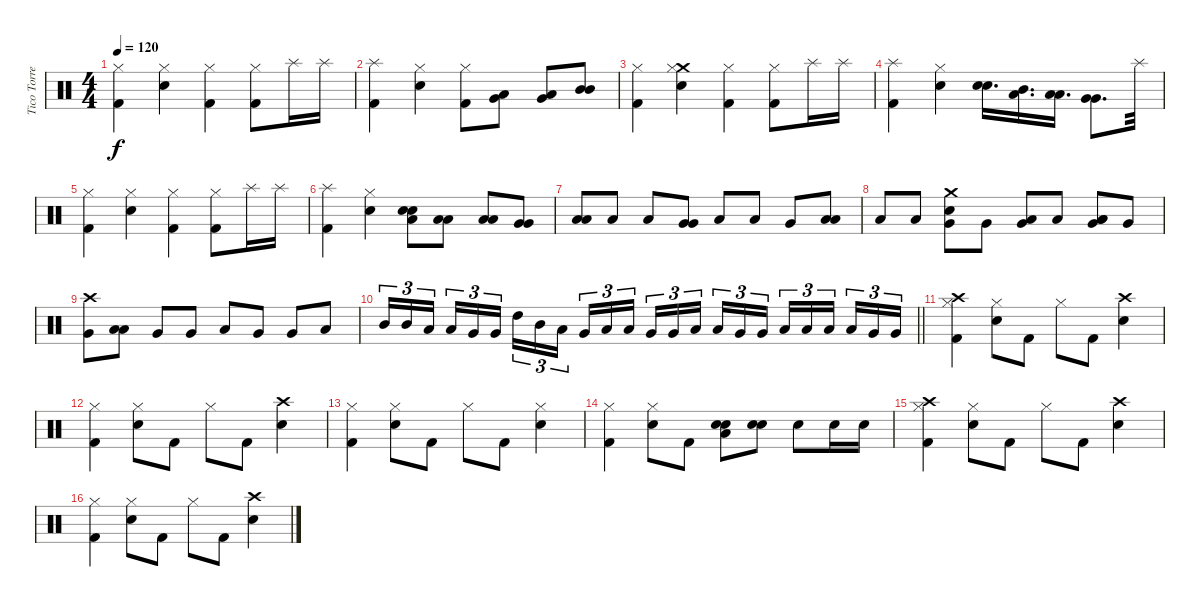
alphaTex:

\track ("Tico Torres (Drums)" "Tico Torre") {instrument percussion}
\staff {score}
\articulation defaults
\ts (4 4)
\tempo 120
\clef neutral
\ks c
("Hi-Hat (closed)" "Kick (hit) 2").4{dy f} ("Hi-Hat (closed)" "Electric Snare (hit)").4 ("Hi-Hat (closed)" "Kick (hit) 2").4 ("Hi-Hat (closed)" "Kick (hit) 2").8 "Splash (hit)".16 "Splash (hit)".16 |
("Splash (hit)" "Kick (hit) 2").4 ("Hi-Hat (closed)" "Electric Snare (hit)").4 ("Hi-Hat (closed)" "Kick (hit) 2").8 ("Low Tom (hit)" "Very Low Tom (hit)").8{bd 120} ("Low Tom (hit)" "Very Low Tom (hit)").8{bd 120} ("Mid Tom (hit)" "Mid Tom (hit)").8{bd 120} |
("Hi-Hat (closed)" "Kick (hit) 2").4 ("Crash medium (hit)" "Hi-Hat (closed)" "Electric Snare (hit)").4 ("Hi-Hat (closed)" "Kick (hit) 2").4 ("Hi-Hat (closed)" "Kick (hit) 2").8 "Splash (hit)".16 "Splash (hit)".16 |
("Splash (hit)" "Kick (hit) 2").4 ("Hi-Hat (closed)" "Electric Snare (hit)").4 ("Electric Snare (hit)" "Electric Snare (hit)").16{d bd 120} ("Low Tom (hit)" "Mid Tom (hit)").16{d bd 120} ("Low Tom (hit)" "Low Floor Tom (hit)").16{d bd 120} ("Very Low Tom (hit)" "Very Low Tom (hit)").8{d bd 120} "Splash (hit)".32 |
("Hi-Hat (closed)" "Kick (hit) 2").4 ("Hi-Hat (closed)" "Electric Snare (hit)").4 ("Hi-Hat (closed)" "Kick (hit) 2").4 ("Hi-Hat (closed)" "Kick (hit) 2").8 "Splash (hit)".16 "Splash (hit)".16 |
("Splash (hit)" "Kick (hit) 2").4 ("Hi-Hat (closed)" "Electric Snare (hit)").4 ("Low Floor Tom (hit)" "Electric Snare (hit)" "Electric Snare (hit)").8{bd 120} ("Low Tom (hit)" "Low Tom (hit)").8{bd 120} ("Low Tom (hit)" "Low Tom (hit)").8{bd 120} ("Very Low Tom (hit)" "Very Low Tom (hit)").8{bd 120} |
("Low Tom (hit)" "Low Tom (hit)").8{bd 120} "Low Tom (hit)".8 "Low Tom (hit)".8 ("Very Low Tom (hit)" "Very Low Tom (hit)").8{bd 120} "Low Tom (hit)".8 "Low Tom (hit)".8 "Very Low Tom (hit)".8 ("Low Tom (hit)" "Low Tom (hit)").8{bd 120} |
"Low Tom (hit)".8 "Low Tom (hit)".8 ("Crash medium (hit)" "Very Low Tom (hit)" "Electric Snare (hit)").8{bd 120} "Very Low Tom (hit)".8 ("Low Tom (hit)" "Very Low Tom (hit)").8{bd 120} "Low Tom (hit)".8 ("Low Floor Tom (hit)" "Very Low Tom (hit)" "Low Tom (hit)").8{bd 120} "Very Low Tom (hit)".8 |
("Crash high (hit)" "Very Low Tom (hit)").8 ("Low Tom (hit)" "Low Tom (hit)").8{bd 120} "Very Low Tom (hit)".8 "Very Low Tom (hit)".8 "Low Tom (hit)".8 "Very Low Tom (hit)".8 "Very Low Tom (hit)".8 "Low Tom (hit)".8 |
\barLineRight lightlight "Mid Tom (hit)".16{tu (3 2)} "Mid Tom (hit)".16{tu (3 2)} "Low Tom (hit)".16{tu (3 2) beam splitsecondary} "Low Tom (hit)".16{tu (3 2)} "Very Low Tom (hit)".16{tu (3 2)} "Very Low Tom (hit)".16{tu (3 2)} "High Tom (hit)".16{tu (3 2)} "Mid Tom (hit)".16{tu (3 2)} "Low Tom (hit)".16{tu (3 2) beam splitsecondary} "Very Low Tom (hit)".16{tu (3 2)} "Low Tom (hit)".16{tu (3 2)} "Low Tom (hit)".16{tu (3 2)} "Very Low Tom (hit)".16{tu (3 2)} "Very Low Tom (hit)".16{tu (3 2)} "Low Floor Tom (hit)".16{tu (3 2) beam splitsecondary} "Low Floor Tom (hit)".16{tu (3 2)} "Very Low Tom (hit)".16{tu (3 2)} "Very Low Tom (hit)".16{tu (3 2)} "Low Tom (hit)".16{tu (3 2)} "Low Tom (hit)".16{tu (3 2)} "Low Tom (hit)".16{tu (3 2) beam splitsecondary} "Low Tom (hit)".16{tu (3 2)} "Very Low Tom (hit)".16{tu (3 2)} "Very Low Tom (hit)".16{tu (3 2)}
|
("Crash high (hit)" "Hi-Hat (closed)" "Kick (hit) 2").4 ("Hi-Hat (closed)" "Electric Snare (hit)").8 "Kick (hit) 2".8 "Hi-Hat (closed)".8 "Kick (hit) 2".8 ("Crash high (hit)" "Electric Snare (hit)").4 |
("Hi-Hat (closed)" "Kick (hit) 2").4 ("Hi-Hat (closed)" "Electric Snare (hit)").8 "Kick (hit) 2".8 "Hi-Hat (closed)".8 "Kick (hit) 2".8 ("Crash high (hit)" "Electric Snare (hit)").4 |
("Hi-Hat (closed)" "Kick (hit) 2").4 ("Hi-Hat (closed)" "Electric Snare (hit)").8 "Kick (hit) 2".8 "Hi-Hat (closed)".8 "Kick (hit) 2".8 ("Hi-Hat (closed)" "Electric Snare (hit)").4 |
("Hi-Hat (closed)" "Kick (hit) 2").4 ("Hi-Hat (closed)" "Electric Snare (hit)").8 "Kick (hit) 2".8 ("Low Floor Tom (hit)" "Electric Snare (hit)" "Electric Snare (hit)").8{bd 120} ("Electric Snare (hit)" "Electric Snare (hit)").8{bd 120} "Electric Snare (hit)".8 "Electric Snare (hit)".16 "Electric Snare (hit)".16 |
("Crash high (hit)" "Hi-Hat (closed)" "Kick (hit) 2").4 ("Hi-Hat (closed)" "Electric Snare (hit)").8 "Kick (hit) 2".8 "Hi-Hat (closed)".8 "Kick (hit) 2".8 ("Crash high (hit)" "Electric Snare (hit)").4 |
("Hi-Hat (closed)" "Kick (hit) 2").4 ("Hi-Hat (closed)" "Electric Snare (hit)").8 "Kick (hit) 2".8 "Hi-Hat (closed)".8 "Kick (hit) 2".8 ("Crash high (hit)" "Electric Snare (hit)").4
